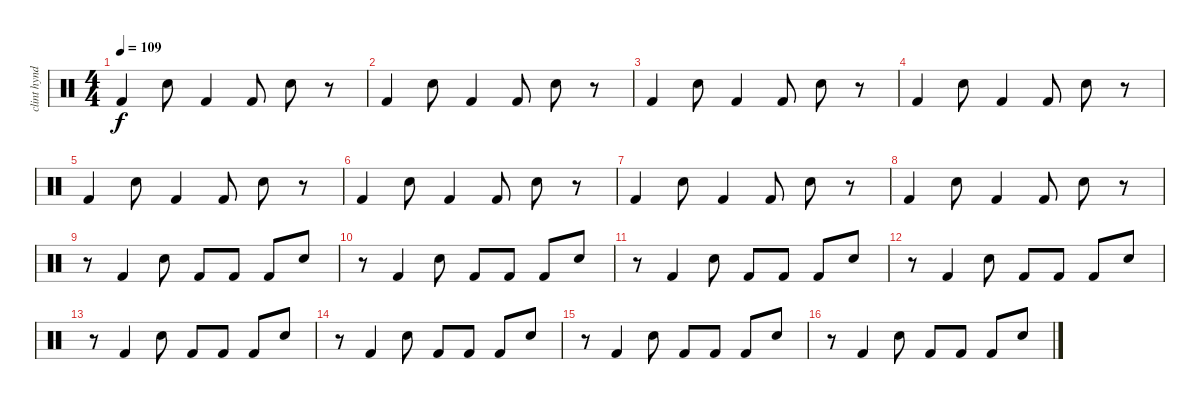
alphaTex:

\track ("clint hyndman" "clint hynd") {instrument percussion}
\staff {score}
\articulation defaults
\ts (4 4)
\tempo 109
\clef neutral
\ks c "Kick (hit) 2".4{dy f} "Electric Snare (hit)".8 "Kick (hit) 2".4 "Kick (hit) 2".8 "Electric Snare (hit)".8
r.8 |
"Kick (hit) 2".4 "Electric Snare (hit)".8 "Kick (hit) 2".4 "Kick (hit) 2".8 "Electric Snare (hit)".8 r.8 |
"Kick (hit) 2".4 "Electric Snare (hit)".8 "Kick (hit) 2".4 "Kick (hit) 2".8 "Electric Snare (hit)".8 r.8 |
"Kick (hit) 2".4 "Electric Snare (hit)".8 "Kick (hit) 2".4 "Kick (hit) 2".8 "Electric Snare (hit)".8 r.8 |
"Kick (hit) 2".4 "Electric Snare (hit)".8 "Kick (hit) 2".4 "Kick (hit) 2".8 "Electric Snare (hit)".8 r.8 |
"Kick (hit) 2".4 "Electric Snare (hit)".8 "Kick (hit) 2".4 "Kick (hit) 2".8 "Electric Snare (hit)".8 r.8 |
"Kick (hit) 2".4 "Electric Snare (hit)".8 "Kick (hit) 2".4 "Kick (hit) 2".8 "Electric Snare (hit)".8 r.8 |
"Kick (hit) 2".4 "Electric Snare (hit)".8 "Kick (hit) 2".4 "Kick (hit) 2".8 "Electric Snare (hit)".8 r.8 |
r.8 "Kick (hit) 2".4 "Electric Snare (hit)".8 "Kick (hit) 2".8 "Kick (hit) 2".8 "Kick (hit) 2".8 "Electric Snare (hit)".8 |
r.8 "Kick (hit) 2".4 "Electric Snare (hit)".8 "Kick (hit) 2".8 "Kick (hit) 2".8 "Kick (hit) 2".8 "Electric Snare (hit)".8 |
r.8 "Kick (hit) 2".4 "Electric Snare (hit)".8 "Kick (hit) 2".8 "Kick (hit) 2".8 "Kick (hit) 2".8 "Electric Snare (hit)".8 |
r.8 "Kick (hit) 2".4 "Electric Snare (hit)".8 "Kick (hit) 2".8 "Kick (hit) 2".8 "Kick (hit) 2".8 "Electric Snare (hit)".8 |
r.8 "Kick (hit) 2".4 "Electric Snare (hit)".8 "Kick (hit) 2".8 "Kick (hit) 2".8 "Kick (hit) 2".8 "Electric Snare (hit)".8 |
r.8 "Kick (hit) 2".4 "Electric Snare (hit)".8 "Kick (hit) 2".8 "Kick (hit) 2".8 "Kick (hit) 2".8 "Electric Snare (hit)".8 |
r.8 "Kick (hit) 2".4 "Electric Snare (hit)".8 "Kick (hit) 2".8 "Kick (hit) 2".8 "Kick (hit) 2".8 "Electric Snare (hit)".8 |
r.8 "Kick (hit) 2".4 "Electric Snare (hit)".8 "Kick (hit) 2".8 "Kick (hit) 2".8 "Kick (hit) 2".8 "Electric Snare (hit)".8
